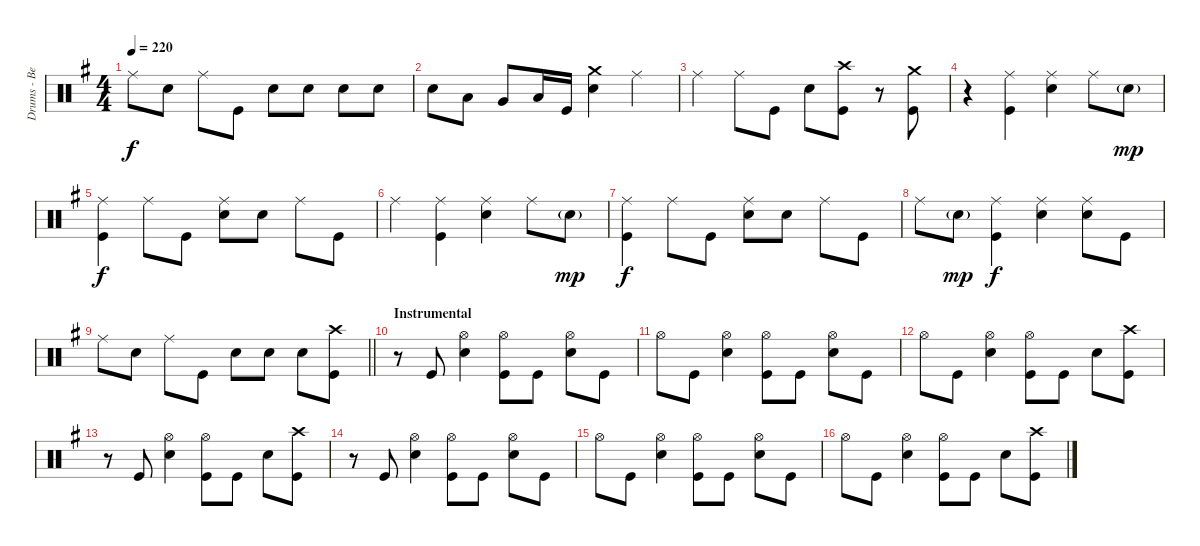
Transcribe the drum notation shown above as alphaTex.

\track ("Drums - Ben Johnston" "Drums - Be") {instrument percussion}
\staff {score}
\articulation defaults
\ts (4 4)
\tempo 220
\clef neutral
\ks eminor "Ride (middle)".8{dy f} "Snare (hit) 2".8 "Ride (middle)".8 "Kick (hit)".8 "Snare (hit) 2".8 "Snare (hit) 2".8 "Snare (hit) 2".8 "Snare (hit) 2".8
|
"Snare (hit) 2".8 "Low Tom (hit)".8 "Very Low Tom (hit)".8 "Low Floor Tom (hit)".16 "Kick (hit)".16 ("Crash medium (hit)" "Snare (hit) 2").4 "Ride (middle)".4 |
"Ride (middle)".4 "Ride (middle)".8 "Kick (hit)".8 "Snare (hit) 2".8 ("Crash high (hit)" "Kick (hit)").8 r.8 ("Crash medium (hit)" "Kick (hit)").8 |
r.4 ("Ride (middle)" "Kick (hit)").4 ("Ride (middle)" "Snare (hit) 2").4 "Ride (middle)".8 "Snare (hit) 2"{g}.8{dy mp} |
("Ride (middle)" "Kick (hit)").4{dy f} "Ride (middle)".8 "Kick (hit)".8 ("Ride (middle)" "Snare (hit) 2").8 "Snare (hit) 2".8 "Ride (middle)".8 "Kick (hit)".8 |
"Ride (middle)".4 ("Ride (middle)" "Kick (hit)").4 ("Ride (middle)" "Snare (hit) 2").4 "Ride (middle)".8 "Snare (hit) 2"{g}.8{dy mp} |
("Ride (middle)" "Kick (hit)").4{dy f} "Ride (middle)".8 "Kick (hit)".8 ("Ride (middle)" "Snare (hit) 2").8 "Snare (hit) 2".8 "Ride (middle)".8 "Kick (hit)".8 |
"Ride (middle)".8 "Snare (hit) 2"{g}.8{dy mp} ("Ride (middle)" "Kick (hit)").4{dy f} ("Ride (middle)" "Snare (hit) 2").4 ("Ride (middle)" "Snare (hit) 2").8 "Kick (hit)".8 |
\barLineRight lightlight "Ride (middle)".8 "Snare (hit) 2".8 "Ride (middle)".8 "Kick (hit)".8 "Snare (hit) 2".8 "Snare (hit) 2".8 "Snare (hit) 2".8
("Crash high (hit)" "Kick (hit)").8 |
\section ("" "Instrumental")
r.8 "Kick (hit)".8 ("Hi-Hat (open)" "Snare (hit) 2").4 ("Hi-Hat (open)" "Kick (hit)").8 "Kick (hit)".8 ("Hi-Hat (open)" "Snare (hit) 2").8 "Kick (hit)".8 |
"Hi-Hat (open)".8 "Kick (hit)".8 ("Hi-Hat (open)" "Snare (hit) 2").4 ("Hi-Hat (open)" "Kick (hit)").8 "Kick (hit)".8 ("Hi-Hat (open)" "Snare (hit) 2").8 "Kick (hit)".8 |
"Hi-Hat (open)".8 "Kick (hit)".8 ("Hi-Hat (open)" "Snare (hit) 2").4 ("Hi-Hat (open)" "Kick (hit)").8 "Kick (hit)".8 "Snare (hit) 2".8 ("Crash high (hit)" "Kick (hit)").8 |
r.8 "Kick (hit)".8 ("Hi-Hat (open)" "Snare (hit) 2").4 ("Hi-Hat (open)" "Kick (hit)").8 "Kick (hit)".8 "Snare (hit) 2".8 ("Crash high (hit)" "Kick (hit)").8 |
r.8 "Kick (hit)".8 ("Hi-Hat (open)" "Snare (hit) 2").4 ("Hi-Hat (open)" "Kick (hit)").8 "Kick (hit)".8 ("Hi-Hat (open)" "Snare (hit) 2").8 "Kick (hit)".8 |
"Hi-Hat (open)".8 "Kick (hit)".8 ("Hi-Hat (open)" "Snare (hit) 2").4 ("Hi-Hat (open)" "Kick (hit)").8 "Kick (hit)".8 ("Hi-Hat (open)" "Snare (hit) 2").8 "Kick (hit)".8 |
"Hi-Hat (open)".8 "Kick (hit)".8 ("Hi-Hat (open)" "Snare (hit) 2").4 ("Hi-Hat (open)" "Kick (hit)").8 "Kick (hit)".8 "Snare (hit) 2".8 ("Crash high (hit)" "Kick (hit)").8
